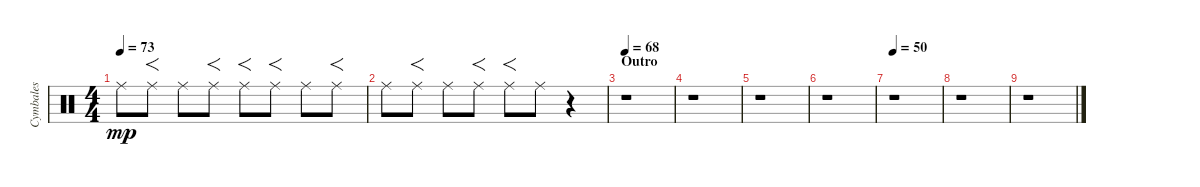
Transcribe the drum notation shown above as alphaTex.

\track ("Cymbales" "Cymbales") {instrument percussion}
\staff {score}
\articulation defaults
\ts (4 4)
\tempo 73
\clef neutral
\ks c "Ride (middle)".8{dy mp} "Ride (middle)".8{f} "Ride (middle)".8 "Ride (middle)".8{f} "Ride (middle)".8{f} "Ride (middle)".8{f} "Ride (middle)".8 "Ride (middle)".8{f}
|
"Ride (middle)".8 "Ride (middle)".8{f} "Ride (middle)".8 "Ride (middle)".8{f} "Ride (middle)".8{f} "Ride (middle)".8 r.4 |
\section ("" "Outro")
\tempo 68
r.1 |
r.1 |
r.1 |
r.1 |
\tempo 50
r.1 |
r.1 |
r.1
